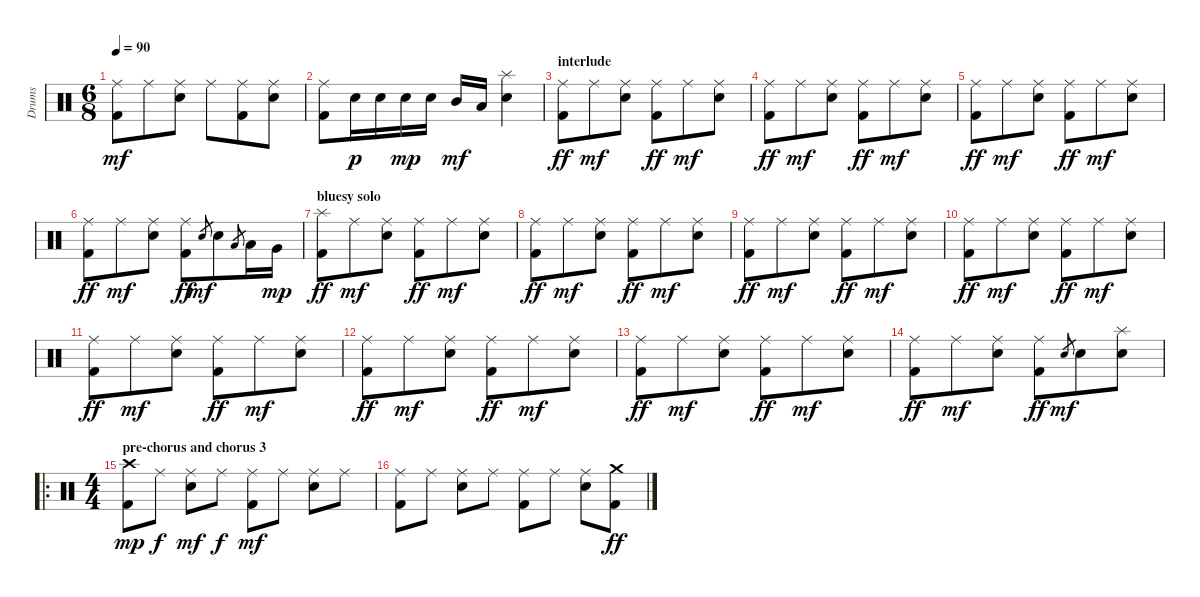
\track ("Drums" "Drums") {instrument percussion}
\staff {score}
\articulation defaults
\ts (6 8)
\tempo 90
\clef neutral
\ks c
("Ride (middle)" "Kick (hit) 2").8{dy mf} "Ride (middle)".8 ("Ride (middle)" "Electric Snare (hit)").8 "Ride (middle)".8 ("Ride (middle)" "Kick (hit) 2").8 ("Ride (middle)" "Electric Snare (hit)").8 |
("Ride (middle)" "Kick (hit) 2").8 "Electric Snare (hit)".16{dy p} "Electric Snare (hit)".16 "Electric Snare (hit)".16{dy mp} "Electric Snare (hit)".16 "Mid Tom (hit)".16{dy mf} "Low Tom (hit)".16 ("Splash (hit)" "Electric Snare (hit)").4 |
\section ("" "interlude")
("Ride (middle)" "Kick (hit) 2").8{dy ff} "Ride (middle)".8{dy mf} ("Ride (middle)" "Electric Snare (hit)").8 ("Ride (middle)" "Kick (hit) 2").8{dy ff} "Ride (middle)".8{dy mf} ("Ride (middle)" "Electric Snare (hit)").8 |
("Ride (middle)" "Kick (hit) 2").8{dy ff} "Ride (middle)".8{dy mf} ("Ride (middle)" "Electric Snare (hit)").8 ("Ride (middle)" "Kick (hit) 2").8{dy ff} "Ride (middle)".8{dy mf} ("Ride (middle)" "Electric Snare (hit)").8 |
("Ride (middle)" "Kick (hit) 2").8{dy ff} "Ride (middle)".8{dy mf} ("Ride (middle)" "Electric Snare (hit)").8 ("Ride (middle)" "Kick (hit) 2").8{dy ff} "Ride (middle)".8{dy mf} ("Ride (middle)" "Electric Snare (hit)").8 |
("Ride (middle)" "Kick (hit) 2").8{dy ff} "Ride (middle)".8{dy mf} ("Ride (middle)" "Electric Snare (hit)").8 ("Ride (middle)" "Kick (hit) 2").8{dy ff} "Electric Snare (hit)".8{gr dy mf} "Electric Snare (hit)".8 "Low Tom (hit)".8{gr} "Low Tom (hit)".16 "Very Low Tom (hit)".16{dy mp} |
\section ("" "bluesy solo")
("Splash (hit)" "Kick (hit) 2").8{dy ff} "Ride (middle)".8{dy mf} ("Ride (middle)" "Electric Snare (hit)").8 ("Ride (middle)" "Kick (hit) 2").8{dy ff} "Ride (middle)".8{dy mf} ("Ride (middle)" "Electric Snare (hit)").8 |
("Ride (middle)" "Kick (hit) 2").8{dy ff} "Ride (middle)".8{dy mf} ("Ride (middle)" "Electric Snare (hit)").8 ("Ride (middle)" "Kick (hit) 2").8{dy ff} "Ride (middle)".8{dy mf} ("Ride (middle)" "Electric Snare (hit)").8 |
("Ride (middle)" "Kick (hit) 2").8{dy ff} "Ride (middle)".8{dy mf} ("Ride (middle)" "Electric Snare (hit)").8 ("Ride (middle)" "Kick (hit) 2").8{dy ff} "Ride (middle)".8{dy mf} ("Ride (middle)" "Electric Snare (hit)").8 |
("Ride (middle)" "Kick (hit) 2").8{dy ff} "Ride (middle)".8{dy mf} ("Ride (middle)" "Electric Snare (hit)").8 ("Ride (middle)" "Kick (hit) 2").8{dy ff} "Ride (middle)".8{dy mf} ("Ride (middle)" "Electric Snare (hit)").8 |
("Ride (middle)" "Kick (hit) 2").8{dy ff} "Ride (middle)".8{dy mf} ("Ride (middle)" "Electric Snare (hit)").8 ("Ride (middle)" "Kick (hit) 2").8{dy ff} "Ride (middle)".8{dy mf} ("Ride (middle)" "Electric Snare (hit)").8 |
("Ride (middle)" "Kick (hit) 2").8{dy ff} "Ride (middle)".8{dy mf} ("Ride (middle)" "Electric Snare (hit)").8 ("Ride (middle)" "Kick (hit) 2").8{dy ff} "Ride (middle)".8{dy mf} ("Ride (middle)" "Electric Snare (hit)").8 |
("Ride (middle)" "Kick (hit) 2").8{dy ff} "Ride (middle)".8{dy mf} ("Ride (middle)" "Electric Snare (hit)").8 ("Ride (middle)" "Kick (hit) 2").8{dy ff} "Ride (middle)".8{dy mf} ("Ride (middle)" "Electric Snare (hit)").8 |
("Ride (middle)" "Kick (hit) 2").8{dy ff} "Ride (middle)".8{dy mf} ("Ride (middle)" "Electric Snare (hit)").8 ("Ride (middle)" "Kick (hit) 2").8{dy ff} "Electric Snare (hit)".8{gr dy mf} "Electric Snare (hit)".8 ("Splash (hit)" "Electric Snare (hit)").8 |
\ro
\ts (4 4)
\section ("" "pre-chorus and chorus 3")
("Crash high (hit)" "Kick (hit) 2").8{dy mp} "Ride (middle)".8{dy f} ("Ride (middle)" "Electric Snare (hit)").8{dy mf} "Ride (middle)".8{dy f} ("Ride (middle)" "Kick (hit) 2").8{dy mf} "Ride (middle)".8 ("Ride (middle)" "Electric Snare (hit)").8 "Ride (middle)".8 |
("Ride (middle)" "Kick (hit) 2").8 "Ride (middle)".8 ("Ride (middle)" "Electric Snare (hit)").8 "Ride (middle)".8 ("Ride (middle)" "Kick (hit) 2").8 "Ride (middle)".8 ("Ride (middle)" "Electric Snare (hit)").8 ("Crash medium (hit)" "Kick (hit) 2").8{dy ff}
